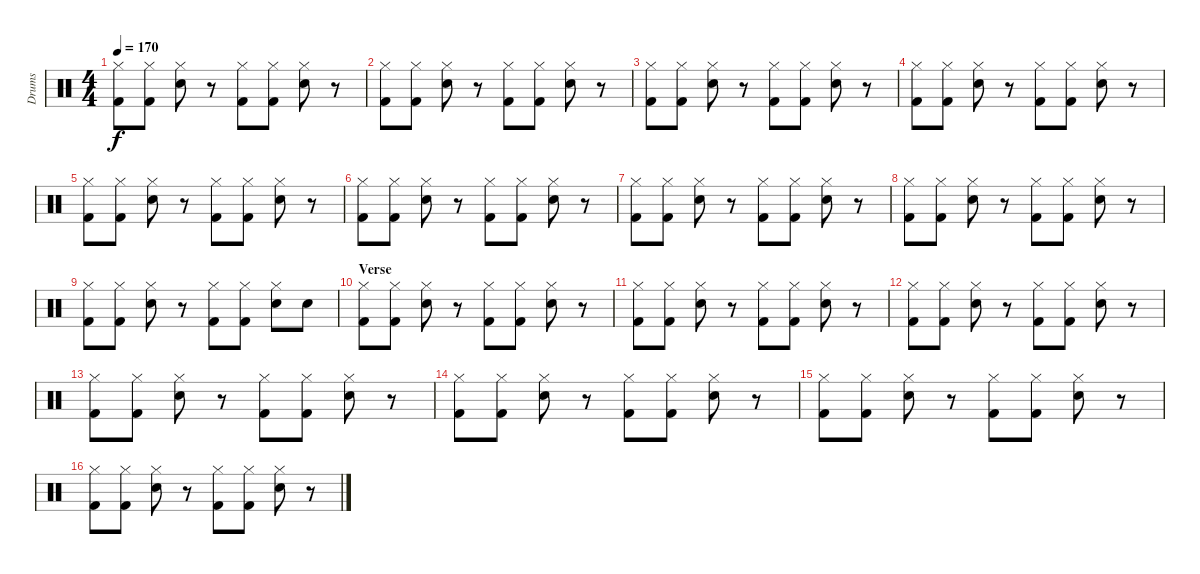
\track ("Drums" "Drums") {instrument percussion}
\staff {score}
\articulation defaults
\ts (4 4)
\tempo 170
\clef neutral
\ks c
("Hi-Hat (closed)" "Kick (hit) 2").8{dy f} ("Hi-Hat (closed)" "Kick (hit) 2").8 ("Hi-Hat (closed)" "Snare (hit) 2").8 r.8 ("Hi-Hat (closed)" "Kick (hit) 2").8 ("Hi-Hat (closed)" "Kick (hit) 2").8 ("Hi-Hat (closed)" "Snare (hit) 2").8 r.8 |
("Hi-Hat (closed)" "Kick (hit) 2").8 ("Hi-Hat (closed)" "Kick (hit) 2").8 ("Hi-Hat (closed)" "Snare (hit) 2").8 r.8 ("Hi-Hat (closed)" "Kick (hit) 2").8 ("Hi-Hat (closed)" "Kick (hit) 2").8 ("Hi-Hat (closed)" "Snare (hit) 2").8 r.8 |
("Hi-Hat (closed)" "Kick (hit) 2").8 ("Hi-Hat (closed)" "Kick (hit) 2").8 ("Hi-Hat (closed)" "Snare (hit) 2").8 r.8 ("Hi-Hat (closed)" "Kick (hit) 2").8 ("Hi-Hat (closed)" "Kick (hit) 2").8 ("Hi-Hat (closed)" "Snare (hit) 2").8 r.8 |
("Hi-Hat (closed)" "Kick (hit) 2").8 ("Hi-Hat (closed)" "Kick (hit) 2").8 ("Hi-Hat (closed)" "Snare (hit) 2").8 r.8 ("Hi-Hat (closed)" "Kick (hit) 2").8 ("Hi-Hat (closed)" "Kick (hit) 2").8 ("Hi-Hat (closed)" "Snare (hit) 2").8 r.8 |
("Hi-Hat (closed)" "Kick (hit) 2").8 ("Hi-Hat (closed)" "Kick (hit) 2").8 ("Hi-Hat (closed)" "Snare (hit) 2").8 r.8 ("Hi-Hat (closed)" "Kick (hit) 2").8 ("Hi-Hat (closed)" "Kick (hit) 2").8 ("Hi-Hat (closed)" "Snare (hit) 2").8 r.8 |
("Hi-Hat (closed)" "Kick (hit) 2").8 ("Hi-Hat (closed)" "Kick (hit) 2").8 ("Hi-Hat (closed)" "Snare (hit) 2").8 r.8 ("Hi-Hat (closed)" "Kick (hit) 2").8 ("Hi-Hat (closed)" "Kick (hit) 2").8 ("Hi-Hat (closed)" "Snare (hit) 2").8 r.8 |
("Hi-Hat (closed)" "Kick (hit) 2").8 ("Hi-Hat (closed)" "Kick (hit) 2").8 ("Hi-Hat (closed)" "Snare (hit) 2").8 r.8 ("Hi-Hat (closed)" "Kick (hit) 2").8 ("Hi-Hat (closed)" "Kick (hit) 2").8 ("Hi-Hat (closed)" "Snare (hit) 2").8 r.8 |
("Hi-Hat (closed)" "Kick (hit) 2").8 ("Hi-Hat (closed)" "Kick (hit) 2").8 ("Hi-Hat (closed)" "Snare (hit) 2").8 r.8 ("Hi-Hat (closed)" "Kick (hit) 2").8 ("Hi-Hat (closed)" "Kick (hit) 2").8 ("Hi-Hat (closed)" "Snare (hit) 2").8 r.8 |
("Hi-Hat (closed)" "Kick (hit) 2").8 ("Hi-Hat (closed)" "Kick (hit) 2").8 ("Hi-Hat (closed)" "Snare (hit) 2").8 r.8 ("Hi-Hat (closed)" "Kick (hit) 2").8 ("Hi-Hat (closed)" "Kick (hit) 2").8 ("Hi-Hat (closed)" "Snare (hit) 2").8 "Snare (hit) 2".8 |
\section ("" "Verse")
("Hi-Hat (closed)" "Kick (hit) 2").8 ("Hi-Hat (closed)" "Kick (hit) 2").8 ("Hi-Hat (closed)" "Snare (hit) 2").8 r.8 ("Hi-Hat (closed)" "Kick (hit) 2").8 ("Hi-Hat (closed)" "Kick (hit) 2").8 ("Hi-Hat (closed)" "Snare (hit) 2").8 r.8 |
("Hi-Hat (closed)" "Kick (hit) 2").8 ("Hi-Hat (closed)" "Kick (hit) 2").8 ("Hi-Hat (closed)" "Snare (hit) 2").8 r.8 ("Hi-Hat (closed)" "Kick (hit) 2").8 ("Hi-Hat (closed)" "Kick (hit) 2").8 ("Hi-Hat (closed)" "Snare (hit) 2").8 r.8 |
("Hi-Hat (closed)" "Kick (hit) 2").8 ("Hi-Hat (closed)" "Kick (hit) 2").8 ("Hi-Hat (closed)" "Snare (hit) 2").8 r.8 ("Hi-Hat (closed)" "Kick (hit) 2").8 ("Hi-Hat (closed)" "Kick (hit) 2").8 ("Hi-Hat (closed)" "Snare (hit) 2").8 r.8 |
("Hi-Hat (closed)" "Kick (hit) 2").8 ("Hi-Hat (closed)" "Kick (hit) 2").8 ("Hi-Hat (closed)" "Snare (hit) 2").8 r.8 ("Hi-Hat (closed)" "Kick (hit) 2").8 ("Hi-Hat (closed)" "Kick (hit) 2").8 ("Hi-Hat (closed)" "Snare (hit) 2").8 r.8 |
("Hi-Hat (closed)" "Kick (hit) 2").8 ("Hi-Hat (closed)" "Kick (hit) 2").8 ("Hi-Hat (closed)" "Snare (hit) 2").8 r.8 ("Hi-Hat (closed)" "Kick (hit) 2").8 ("Hi-Hat (closed)" "Kick (hit) 2").8 ("Hi-Hat (closed)" "Snare (hit) 2").8 r.8 |
("Hi-Hat (closed)" "Kick (hit) 2").8 ("Hi-Hat (closed)" "Kick (hit) 2").8 ("Hi-Hat (closed)" "Snare (hit) 2").8 r.8 ("Hi-Hat (closed)" "Kick (hit) 2").8 ("Hi-Hat (closed)" "Kick (hit) 2").8 ("Hi-Hat (closed)" "Snare (hit) 2").8 r.8 |
("Hi-Hat (closed)" "Kick (hit) 2").8 ("Hi-Hat (closed)" "Kick (hit) 2").8 ("Hi-Hat (closed)" "Snare (hit) 2").8 r.8 ("Hi-Hat (closed)" "Kick (hit) 2").8 ("Hi-Hat (closed)" "Kick (hit) 2").8 ("Hi-Hat (closed)" "Snare (hit) 2").8 r.8
